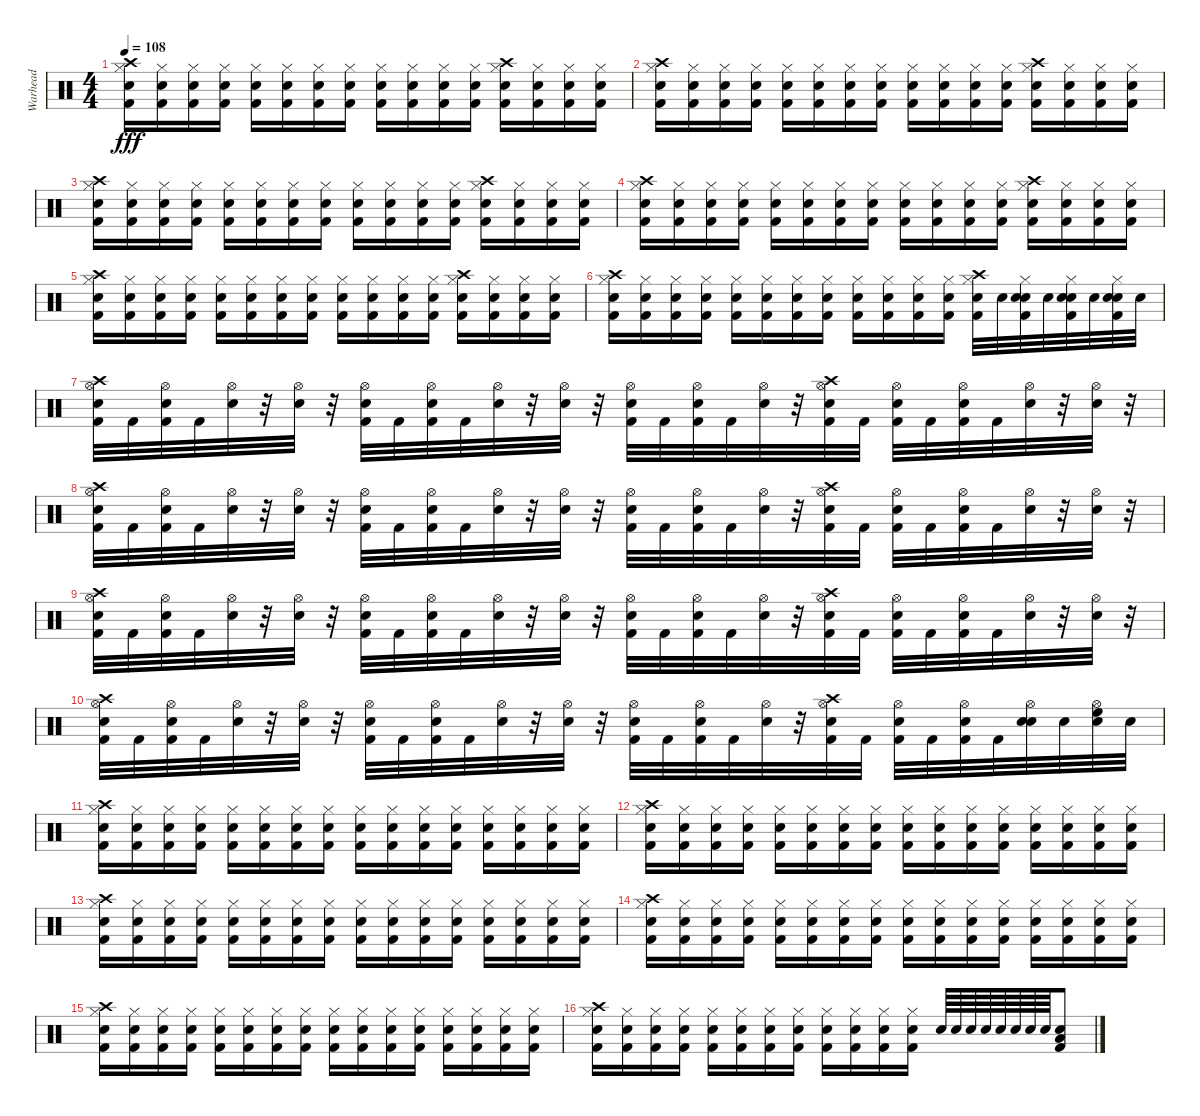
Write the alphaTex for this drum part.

\track ("Warhead" "Warhead") {instrument percussion}
\staff {score}
\articulation defaults
\ts (4 4)
\tempo 108
\clef neutral
\ks c
("Kick (hit) 2" "Electric Snare (hit)" "Crash high (hit)" "Hi-Hat (closed)").16{dy fff} ("Kick (hit) 2" "Electric Snare (hit)" "Hi-Hat (closed)").16 ("Kick (hit) 2" "Electric Snare (hit)" "Hi-Hat (closed)").16 ("Kick (hit) 2" "Electric Snare (hit)" "Hi-Hat (closed)").16 ("Kick (hit) 2" "Electric Snare (hit)" "Hi-Hat (closed)").16 ("Kick (hit) 2" "Electric Snare (hit)" "Hi-Hat (closed)").16 ("Kick (hit) 2" "Electric Snare (hit)" "Hi-Hat (closed)").16 ("Kick (hit) 2" "Electric Snare (hit)" "Hi-Hat (closed)").16 ("Kick (hit) 2" "Electric Snare (hit)" "Hi-Hat (closed)").16 ("Kick (hit) 2" "Electric Snare (hit)" "Hi-Hat (closed)").16 ("Kick (hit) 2" "Electric Snare (hit)" "Hi-Hat (closed)").16 ("Kick (hit) 2" "Electric Snare (hit)" "Hi-Hat (closed)").16 ("Kick (hit) 2" "Electric Snare (hit)" "Crash high (hit)" "Hi-Hat (closed)").16 ("Kick (hit) 2" "Electric Snare (hit)" "Hi-Hat (closed)").16 ("Kick (hit) 2" "Electric Snare (hit)" "Hi-Hat (closed)").16 ("Kick (hit) 2" "Electric Snare (hit)" "Hi-Hat (closed)").16 |
("Kick (hit) 2" "Electric Snare (hit)" "Crash high (hit)" "Hi-Hat (closed)").16 ("Kick (hit) 2" "Electric Snare (hit)" "Hi-Hat (closed)").16 ("Kick (hit) 2" "Electric Snare (hit)" "Hi-Hat (closed)").16 ("Kick (hit) 2" "Electric Snare (hit)" "Hi-Hat (closed)").16 ("Kick (hit) 2" "Electric Snare (hit)" "Hi-Hat (closed)").16 ("Kick (hit) 2" "Electric Snare (hit)" "Hi-Hat (closed)").16 ("Kick (hit) 2" "Electric Snare (hit)" "Hi-Hat (closed)").16 ("Kick (hit) 2" "Electric Snare (hit)" "Hi-Hat (closed)").16 ("Kick (hit) 2" "Electric Snare (hit)" "Hi-Hat (closed)").16 ("Kick (hit) 2" "Electric Snare (hit)" "Hi-Hat (closed)").16 ("Kick (hit) 2" "Electric Snare (hit)" "Hi-Hat (closed)").16 ("Kick (hit) 2" "Electric Snare (hit)" "Hi-Hat (closed)").16 ("Kick (hit) 2" "Electric Snare (hit)" "Crash high (hit)" "Hi-Hat (closed)").16 ("Kick (hit) 2" "Electric Snare (hit)" "Hi-Hat (closed)").16 ("Kick (hit) 2" "Electric Snare (hit)" "Hi-Hat (closed)").16 ("Kick (hit) 2" "Electric Snare (hit)" "Hi-Hat (closed)").16 |
("Kick (hit) 2" "Electric Snare (hit)" "Crash high (hit)" "Hi-Hat (closed)").16 ("Kick (hit) 2" "Electric Snare (hit)" "Hi-Hat (closed)").16 ("Kick (hit) 2" "Electric Snare (hit)" "Hi-Hat (closed)").16 ("Kick (hit) 2" "Electric Snare (hit)" "Hi-Hat (closed)").16 ("Kick (hit) 2" "Electric Snare (hit)" "Hi-Hat (closed)").16 ("Kick (hit) 2" "Electric Snare (hit)" "Hi-Hat (closed)").16 ("Kick (hit) 2" "Electric Snare (hit)" "Hi-Hat (closed)").16 ("Kick (hit) 2" "Electric Snare (hit)" "Hi-Hat (closed)").16 ("Kick (hit) 2" "Electric Snare (hit)" "Hi-Hat (closed)").16 ("Kick (hit) 2" "Electric Snare (hit)" "Hi-Hat (closed)").16 ("Kick (hit) 2" "Electric Snare (hit)" "Hi-Hat (closed)").16 ("Kick (hit) 2" "Electric Snare (hit)" "Hi-Hat (closed)").16 ("Kick (hit) 2" "Electric Snare (hit)" "Crash high (hit)" "Hi-Hat (closed)").16 ("Kick (hit) 2" "Electric Snare (hit)" "Hi-Hat (closed)").16 ("Kick (hit) 2" "Electric Snare (hit)" "Hi-Hat (closed)").16 ("Kick (hit) 2" "Electric Snare (hit)" "Hi-Hat (closed)").16 |
("Kick (hit) 2" "Electric Snare (hit)" "Crash high (hit)" "Hi-Hat (closed)").16 ("Kick (hit) 2" "Electric Snare (hit)" "Hi-Hat (closed)").16 ("Kick (hit) 2" "Electric Snare (hit)" "Hi-Hat (closed)").16 ("Kick (hit) 2" "Electric Snare (hit)" "Hi-Hat (closed)").16 ("Kick (hit) 2" "Electric Snare (hit)" "Hi-Hat (closed)").16 ("Kick (hit) 2" "Electric Snare (hit)" "Hi-Hat (closed)").16 ("Kick (hit) 2" "Electric Snare (hit)" "Hi-Hat (closed)").16 ("Kick (hit) 2" "Electric Snare (hit)" "Hi-Hat (closed)").16 ("Kick (hit) 2" "Electric Snare (hit)" "Hi-Hat (closed)").16 ("Kick (hit) 2" "Electric Snare (hit)" "Hi-Hat (closed)").16 ("Kick (hit) 2" "Electric Snare (hit)" "Hi-Hat (closed)").16 ("Kick (hit) 2" "Electric Snare (hit)" "Hi-Hat (closed)").16 ("Kick (hit) 2" "Electric Snare (hit)" "Crash high (hit)" "Hi-Hat (closed)").16 ("Kick (hit) 2" "Electric Snare (hit)" "Hi-Hat (closed)").16 ("Kick (hit) 2" "Electric Snare (hit)" "Hi-Hat (closed)").16 ("Kick (hit) 2" "Electric Snare (hit)" "Hi-Hat (closed)").16 |
("Kick (hit) 2" "Electric Snare (hit)" "Crash high (hit)" "Hi-Hat (closed)").16 ("Kick (hit) 2" "Electric Snare (hit)" "Hi-Hat (closed)").16 ("Kick (hit) 2" "Electric Snare (hit)" "Hi-Hat (closed)").16 ("Kick (hit) 2" "Electric Snare (hit)" "Hi-Hat (closed)").16 ("Kick (hit) 2" "Electric Snare (hit)" "Hi-Hat (closed)").16 ("Kick (hit) 2" "Electric Snare (hit)" "Hi-Hat (closed)").16 ("Kick (hit) 2" "Electric Snare (hit)" "Hi-Hat (closed)").16 ("Kick (hit) 2" "Electric Snare (hit)" "Hi-Hat (closed)").16 ("Kick (hit) 2" "Electric Snare (hit)" "Hi-Hat (closed)").16 ("Kick (hit) 2" "Electric Snare (hit)" "Hi-Hat (closed)").16 ("Kick (hit) 2" "Electric Snare (hit)" "Hi-Hat (closed)").16 ("Kick (hit) 2" "Electric Snare (hit)" "Hi-Hat (closed)").16 ("Kick (hit) 2" "Electric Snare (hit)" "Crash high (hit)" "Hi-Hat (closed)").16 ("Kick (hit) 2" "Electric Snare (hit)" "Hi-Hat (closed)").16 ("Kick (hit) 2" "Electric Snare (hit)" "Hi-Hat (closed)").16 ("Kick (hit) 2" "Electric Snare (hit)" "Hi-Hat (closed)").16 |
("Kick (hit) 2" "Electric Snare (hit)" "Crash high (hit)" "Hi-Hat (closed)").16 ("Kick (hit) 2" "Electric Snare (hit)" "Hi-Hat (closed)").16 ("Kick (hit) 2" "Electric Snare (hit)" "Hi-Hat (closed)").16 ("Kick (hit) 2" "Electric Snare (hit)" "Hi-Hat (closed)").16 ("Kick (hit) 2" "Electric Snare (hit)" "Hi-Hat (closed)").16 ("Kick (hit) 2" "Electric Snare (hit)" "Hi-Hat (closed)").16 ("Kick (hit) 2" "Electric Snare (hit)" "Hi-Hat (closed)").16 ("Kick (hit) 2" "Electric Snare (hit)" "Hi-Hat (closed)").16 ("Kick (hit) 2" "Electric Snare (hit)" "Hi-Hat (closed)").16 ("Kick (hit) 2" "Electric Snare (hit)" "Hi-Hat (closed)").16 ("Kick (hit) 2" "Electric Snare (hit)" "Hi-Hat (closed)").16 ("Kick (hit) 2" "Electric Snare (hit)" "Hi-Hat (closed)").16 ("Kick (hit) 2" "Electric Snare (hit)" "Crash high (hit)" "Hi-Hat (closed)").32 "Electric Snare (hit)".32 ("Kick (hit) 2" "Electric Snare (hit)" "Hi-Hat (closed)" "Electric Snare (hit)").32 "Electric Snare (hit)".32 ("Kick (hit) 2" "Electric Snare (hit)" "Hi-Hat (closed)" "Electric Snare (hit)").32 "Electric Snare (hit)".32 ("Kick (hit) 2" "Electric Snare (hit)" "Hi-Hat (closed)" "Electric Snare (hit)").32 "Electric Snare (hit)".32 |
("Kick (hit) 2" "Electric Snare (hit)" "Crash high (hit)" "Hi-Hat (open)").32 "Kick (hit) 2".32 ("Kick (hit) 2" "Electric Snare (hit)" "Hi-Hat (open)").32 "Kick (hit) 2".32 ("Electric Snare (hit)" "Hi-Hat (open)").32 r.32 ("Electric Snare (hit)" "Hi-Hat (open)").32 r.32 ("Kick (hit) 2" "Electric Snare (hit)" "Hi-Hat (open)").32 "Kick (hit) 2".32 ("Kick (hit) 2" "Electric Snare (hit)" "Hi-Hat (open)").32 "Kick (hit) 2".32 ("Electric Snare (hit)" "Hi-Hat (open)").32 r.32 ("Electric Snare (hit)" "Hi-Hat (open)").32 r.32 ("Kick (hit) 2" "Electric Snare (hit)" "Hi-Hat (open)").32 "Kick (hit) 2".32 ("Kick (hit) 2" "Electric Snare (hit)" "Hi-Hat (open)").32 "Kick (hit) 2".32 ("Electric Snare (hit)" "Hi-Hat (open)").32 r.32 ("Kick (hit) 2" "Electric Snare (hit)" "Crash high (hit)" "Hi-Hat (open)").32 "Kick (hit) 2".32 ("Kick (hit) 2" "Electric Snare (hit)" "Hi-Hat (open)").32 "Kick (hit) 2".32 ("Kick (hit) 2" "Electric Snare (hit)" "Hi-Hat (open)").32 "Kick (hit) 2".32 ("Electric Snare (hit)" "Hi-Hat (open)").32 r.32 ("Electric Snare (hit)" "Hi-Hat (open)").32 r.32 |
("Kick (hit) 2" "Electric Snare (hit)" "Crash high (hit)" "Hi-Hat (open)").32 "Kick (hit) 2".32 ("Kick (hit) 2" "Electric Snare (hit)" "Hi-Hat (open)").32 "Kick (hit) 2".32 ("Electric Snare (hit)" "Hi-Hat (open)").32 r.32 ("Electric Snare (hit)" "Hi-Hat (open)").32 r.32 ("Kick (hit) 2" "Electric Snare (hit)" "Hi-Hat (open)").32 "Kick (hit) 2".32 ("Kick (hit) 2" "Electric Snare (hit)" "Hi-Hat (open)").32 "Kick (hit) 2".32 ("Electric Snare (hit)" "Hi-Hat (open)").32 r.32 ("Electric Snare (hit)" "Hi-Hat (open)").32 r.32 ("Kick (hit) 2" "Electric Snare (hit)" "Hi-Hat (open)").32 "Kick (hit) 2".32 ("Kick (hit) 2" "Electric Snare (hit)" "Hi-Hat (open)").32 "Kick (hit) 2".32 ("Electric Snare (hit)" "Hi-Hat (open)").32 r.32 ("Kick (hit) 2" "Electric Snare (hit)" "Crash high (hit)" "Hi-Hat (open)").32 "Kick (hit) 2".32 ("Kick (hit) 2" "Electric Snare (hit)" "Hi-Hat (open)").32 "Kick (hit) 2".32 ("Kick (hit) 2" "Electric Snare (hit)" "Hi-Hat (open)").32 "Kick (hit) 2".32 ("Electric Snare (hit)" "Hi-Hat (open)").32 r.32 ("Electric Snare (hit)" "Hi-Hat (open)").32 r.32 |
("Kick (hit) 2" "Electric Snare (hit)" "Crash high (hit)" "Hi-Hat (open)").32 "Kick (hit) 2".32 ("Kick (hit) 2" "Electric Snare (hit)" "Hi-Hat (open)").32 "Kick (hit) 2".32 ("Electric Snare (hit)" "Hi-Hat (open)").32 r.32 ("Electric Snare (hit)" "Hi-Hat (open)").32 r.32 ("Kick (hit) 2" "Electric Snare (hit)" "Hi-Hat (open)").32 "Kick (hit) 2".32 ("Kick (hit) 2" "Electric Snare (hit)" "Hi-Hat (open)").32 "Kick (hit) 2".32 ("Electric Snare (hit)" "Hi-Hat (open)").32 r.32 ("Electric Snare (hit)" "Hi-Hat (open)").32 r.32 ("Kick (hit) 2" "Electric Snare (hit)" "Hi-Hat (open)").32 "Kick (hit) 2".32 ("Kick (hit) 2" "Electric Snare (hit)" "Hi-Hat (open)").32 "Kick (hit) 2".32 ("Electric Snare (hit)" "Hi-Hat (open)").32 r.32 ("Kick (hit) 2" "Electric Snare (hit)" "Crash high (hit)" "Hi-Hat (open)").32 "Kick (hit) 2".32 ("Kick (hit) 2" "Electric Snare (hit)" "Hi-Hat (open)").32 "Kick (hit) 2".32 ("Kick (hit) 2" "Electric Snare (hit)" "Hi-Hat (open)").32 "Kick (hit) 2".32 ("Electric Snare (hit)" "Hi-Hat (open)").32 r.32 ("Electric Snare (hit)" "Hi-Hat (open)").32 r.32 |
("Kick (hit) 2" "Electric Snare (hit)" "Crash high (hit)" "Hi-Hat (open)").32 "Kick (hit) 2".32 ("Kick (hit) 2" "Electric Snare (hit)" "Hi-Hat (open)").32 "Kick (hit) 2".32 ("Electric Snare (hit)" "Hi-Hat (open)").32 r.32 ("Electric Snare (hit)" "Hi-Hat (open)").32 r.32 ("Kick (hit) 2" "Electric Snare (hit)" "Hi-Hat (open)").32 "Kick (hit) 2".32 ("Kick (hit) 2" "Electric Snare (hit)" "Hi-Hat (open)").32 "Kick (hit) 2".32 ("Electric Snare (hit)" "Hi-Hat (open)").32 r.32 ("Electric Snare (hit)" "Hi-Hat (open)").32 r.32 ("Kick (hit) 2" "Electric Snare (hit)" "Hi-Hat (open)").32 "Kick (hit) 2".32 ("Kick (hit) 2" "Electric Snare (hit)" "Hi-Hat (open)").32 "Kick (hit) 2".32 ("Electric Snare (hit)" "Hi-Hat (open)").32 r.32 ("Kick (hit) 2" "Electric Snare (hit)" "Crash high (hit)" "Hi-Hat (open)").32 "Kick (hit) 2".32 ("Kick (hit) 2" "Electric Snare (hit)" "Hi-Hat (open)").32 "Kick (hit) 2".32 ("Kick (hit) 2" "Electric Snare (hit)" "Hi-Hat (open)").32 "Kick (hit) 2".32 ("Snare (hit) 2" "Electric Snare (hit)" "Hi-Hat (open)").32 "Snare (hit) 2".32 ("High Floor Tom (hit)" "Electric Snare (hit)" "Hi-Hat (open)").32 "Electric Snare (hit)".32 |
("Kick (hit) 2" "Electric Snare (hit)" "Crash high (hit)" "Hi-Hat (closed)").16 ("Kick (hit) 2" "Electric Snare (hit)" "Hi-Hat (closed)").16 ("Kick (hit) 2" "Electric Snare (hit)" "Hi-Hat (closed)").16 ("Kick (hit) 2" "Electric Snare (hit)" "Hi-Hat (closed)").16 ("Kick (hit) 2" "Electric Snare (hit)" "Hi-Hat (closed)").16 ("Kick (hit) 2" "Electric Snare (hit)" "Hi-Hat (closed)").16 ("Kick (hit) 2" "Electric Snare (hit)" "Hi-Hat (closed)").16 ("Kick (hit) 2" "Electric Snare (hit)" "Hi-Hat (closed)").16 ("Kick (hit) 2" "Electric Snare (hit)" "Hi-Hat (closed)").16 ("Kick (hit) 2" "Electric Snare (hit)" "Hi-Hat (closed)").16 ("Kick (hit) 2" "Electric Snare (hit)" "Hi-Hat (closed)").16 ("Kick (hit) 2" "Electric Snare (hit)" "Hi-Hat (closed)").16 ("Kick (hit) 2" "Electric Snare (hit)" "Hi-Hat (closed)").16 ("Kick (hit) 2" "Electric Snare (hit)" "Hi-Hat (closed)").16 ("Kick (hit) 2" "Electric Snare (hit)" "Hi-Hat (closed)").16 ("Kick (hit) 2" "Electric Snare (hit)" "Hi-Hat (closed)").16 |
("Kick (hit) 2" "Electric Snare (hit)" "Crash high (hit)" "Hi-Hat (closed)").16 ("Kick (hit) 2" "Electric Snare (hit)" "Hi-Hat (closed)").16 ("Kick (hit) 2" "Electric Snare (hit)" "Hi-Hat (closed)").16 ("Kick (hit) 2" "Electric Snare (hit)" "Hi-Hat (closed)").16 ("Kick (hit) 2" "Electric Snare (hit)" "Hi-Hat (closed)").16 ("Kick (hit) 2" "Electric Snare (hit)" "Hi-Hat (closed)").16 ("Kick (hit) 2" "Electric Snare (hit)" "Hi-Hat (closed)").16 ("Kick (hit) 2" "Electric Snare (hit)" "Hi-Hat (closed)").16 ("Kick (hit) 2" "Electric Snare (hit)" "Hi-Hat (closed)").16 ("Kick (hit) 2" "Electric Snare (hit)" "Hi-Hat (closed)").16 ("Kick (hit) 2" "Electric Snare (hit)" "Hi-Hat (closed)").16 ("Kick (hit) 2" "Electric Snare (hit)" "Hi-Hat (closed)").16 ("Kick (hit) 2" "Electric Snare (hit)" "Hi-Hat (closed)").16 ("Kick (hit) 2" "Electric Snare (hit)" "Hi-Hat (closed)").16 ("Kick (hit) 2" "Electric Snare (hit)" "Hi-Hat (closed)").16 ("Kick (hit) 2" "Electric Snare (hit)" "Hi-Hat (closed)").16 |
("Kick (hit) 2" "Electric Snare (hit)" "Crash high (hit)" "Hi-Hat (closed)").16 ("Kick (hit) 2" "Electric Snare (hit)" "Hi-Hat (closed)").16 ("Kick (hit) 2" "Electric Snare (hit)" "Hi-Hat (closed)").16 ("Kick (hit) 2" "Electric Snare (hit)" "Hi-Hat (closed)").16 ("Kick (hit) 2" "Electric Snare (hit)" "Hi-Hat (closed)").16 ("Kick (hit) 2" "Electric Snare (hit)" "Hi-Hat (closed)").16 ("Kick (hit) 2" "Electric Snare (hit)" "Hi-Hat (closed)").16 ("Kick (hit) 2" "Electric Snare (hit)" "Hi-Hat (closed)").16 ("Kick (hit) 2" "Electric Snare (hit)" "Hi-Hat (closed)").16 ("Kick (hit) 2" "Electric Snare (hit)" "Hi-Hat (closed)").16 ("Kick (hit) 2" "Electric Snare (hit)" "Hi-Hat (closed)").16 ("Kick (hit) 2" "Electric Snare (hit)" "Hi-Hat (closed)").16 ("Kick (hit) 2" "Electric Snare (hit)" "Hi-Hat (closed)").16 ("Kick (hit) 2" "Electric Snare (hit)" "Hi-Hat (closed)").16 ("Kick (hit) 2" "Electric Snare (hit)" "Hi-Hat (closed)").16 ("Kick (hit) 2" "Electric Snare (hit)" "Hi-Hat (closed)").16 |
("Kick (hit) 2" "Electric Snare (hit)" "Crash high (hit)" "Hi-Hat (closed)").16 ("Kick (hit) 2" "Electric Snare (hit)" "Hi-Hat (closed)").16 ("Kick (hit) 2" "Electric Snare (hit)" "Hi-Hat (closed)").16 ("Kick (hit) 2" "Electric Snare (hit)" "Hi-Hat (closed)").16 ("Kick (hit) 2" "Electric Snare (hit)" "Hi-Hat (closed)").16 ("Kick (hit) 2" "Electric Snare (hit)" "Hi-Hat (closed)").16 ("Kick (hit) 2" "Electric Snare (hit)" "Hi-Hat (closed)").16 ("Kick (hit) 2" "Electric Snare (hit)" "Hi-Hat (closed)").16 ("Kick (hit) 2" "Electric Snare (hit)" "Hi-Hat (closed)").16 ("Kick (hit) 2" "Electric Snare (hit)" "Hi-Hat (closed)").16 ("Kick (hit) 2" "Electric Snare (hit)" "Hi-Hat (closed)").16 ("Kick (hit) 2" "Electric Snare (hit)" "Hi-Hat (closed)").16 ("Kick (hit) 2" "Electric Snare (hit)" "Hi-Hat (closed)").16 ("Kick (hit) 2" "Electric Snare (hit)" "Hi-Hat (closed)").16 ("Kick (hit) 2" "Electric Snare (hit)" "Hi-Hat (closed)").16 ("Kick (hit) 2" "Electric Snare (hit)" "Hi-Hat (closed)").16 |
("Kick (hit) 2" "Electric Snare (hit)" "Crash high (hit)" "Hi-Hat (closed)").16 ("Kick (hit) 2" "Electric Snare (hit)" "Hi-Hat (closed)").16 ("Kick (hit) 2" "Electric Snare (hit)" "Hi-Hat (closed)").16 ("Kick (hit) 2" "Electric Snare (hit)" "Hi-Hat (closed)").16 ("Kick (hit) 2" "Electric Snare (hit)" "Hi-Hat (closed)").16 ("Kick (hit) 2" "Electric Snare (hit)" "Hi-Hat (closed)").16 ("Kick (hit) 2" "Electric Snare (hit)" "Hi-Hat (closed)").16 ("Kick (hit) 2" "Electric Snare (hit)" "Hi-Hat (closed)").16 ("Kick (hit) 2" "Electric Snare (hit)" "Hi-Hat (closed)").16 ("Kick (hit) 2" "Electric Snare (hit)" "Hi-Hat (closed)").16 ("Kick (hit) 2" "Electric Snare (hit)" "Hi-Hat (closed)").16 ("Kick (hit) 2" "Electric Snare (hit)" "Hi-Hat (closed)").16 ("Kick (hit) 2" "Electric Snare (hit)" "Hi-Hat (closed)").16 ("Kick (hit) 2" "Electric Snare (hit)" "Hi-Hat (closed)").16 ("Kick (hit) 2" "Electric Snare (hit)" "Hi-Hat (closed)").16 ("Kick (hit) 2" "Electric Snare (hit)" "Hi-Hat (closed)").16 |
("Kick (hit) 2" "Electric Snare (hit)" "Crash high (hit)" "Hi-Hat (closed)").16 ("Kick (hit) 2" "Electric Snare (hit)" "Hi-Hat (closed)").16 ("Kick (hit) 2" "Electric Snare (hit)" "Hi-Hat (closed)").16 ("Kick (hit) 2" "Electric Snare (hit)" "Hi-Hat (closed)").16 ("Kick (hit) 2" "Electric Snare (hit)" "Hi-Hat (closed)").16 ("Kick (hit) 2" "Electric Snare (hit)" "Hi-Hat (closed)").16 ("Kick (hit) 2" "Electric Snare (hit)" "Hi-Hat (closed)").16 ("Kick (hit) 2" "Electric Snare (hit)" "Hi-Hat (closed)").16 ("Kick (hit) 2" "Electric Snare (hit)" "Hi-Hat (closed)").16 ("Kick (hit) 2" "Electric Snare (hit)" "Hi-Hat (closed)").16 ("Kick (hit) 2" "Electric Snare (hit)" "Hi-Hat (closed)").16 ("Kick (hit) 2" "Electric Snare (hit)" "Hi-Hat (closed)").16 "Electric Snare (hit)".64 "Electric Snare (hit)".64 "Electric Snare (hit)".64 "Electric Snare (hit)".64 "Electric Snare (hit)".64 "Electric Snare (hit)".64 "Electric Snare (hit)".64 "Electric Snare (hit)".64 ("Kick (hit) 2" "Snare (hit) 2" "Low Tom (hit)").8
